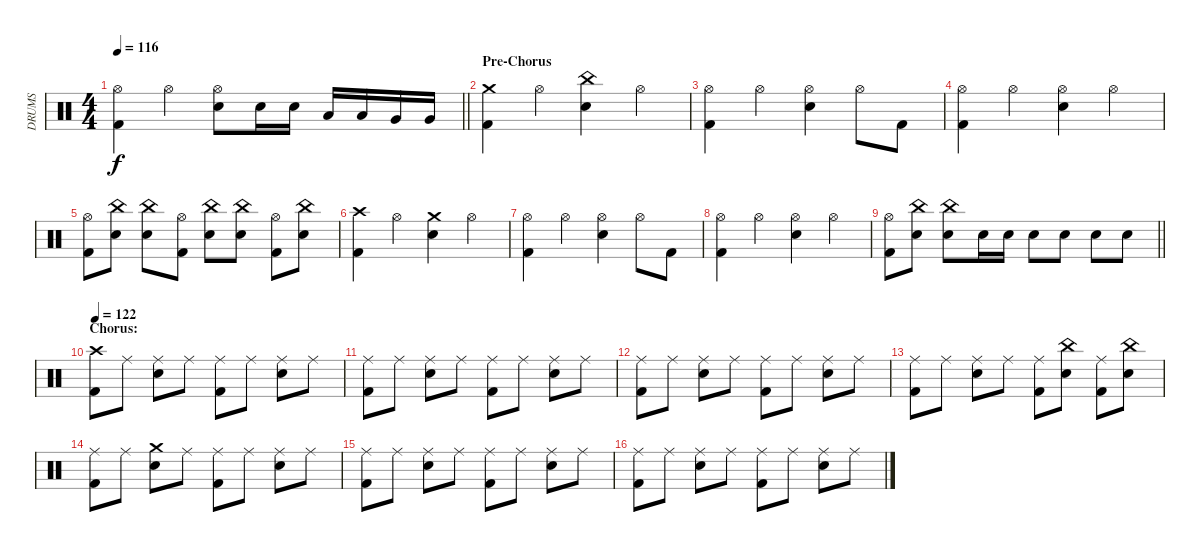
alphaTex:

\track ("DRUMS" "DRUMS") {instrument percussion}
\staff {score}
\articulation defaults
\ts (4 4)
\tempo 116
\clef neutral
\barLineRight lightlight
\ks c
("Hi-Hat (open)" "Kick (hit) 2").4{dy f} "Hi-Hat (open)".4 ("Hi-Hat (open)" "Snare (hit) 2").8 "Snare (hit) 2".16 "Snare (hit) 2".16 "Low Tom (hit)".16 "Low Tom (hit)".16 "Very Low Tom (hit)".16 "Very Low Tom (hit)".16 |
\section ("" "Pre-Chorus")
("Crash medium (hit)" "Kick (hit) 2").4 "Hi-Hat (open)".4 ("China (hit)" "Snare (hit) 2").4 "Hi-Hat (open)".4 |
("Hi-Hat (open)" "Kick (hit) 2").4 "Hi-Hat (open)".4 ("Hi-Hat (open)" "Snare (hit) 2").4 "Hi-Hat (open)".8 "Kick (hit) 2".8 |
("Hi-Hat (open)" "Kick (hit) 2").4 "Hi-Hat (open)".4 ("Hi-Hat (open)" "Snare (hit) 2").4 "Hi-Hat (open)".4 |
("Hi-Hat (open)" "Kick (hit) 2").8 ("China (hit)" "Snare (hit) 2").8 ("China (hit)" "Snare (hit) 2").8 ("Hi-Hat (open)" "Kick (hit) 2").8 ("China (hit)" "Snare (hit) 2").8 ("China (hit)" "Snare (hit) 2").8 ("Hi-Hat (open)" "Kick (hit) 2").8 ("China (hit)" "Snare (hit) 2").8 |
("Crash high (hit)" "Kick (hit) 2").4 "Hi-Hat (open)".4 ("Crash medium (hit)" "Snare (hit) 2").4 "Hi-Hat (open)".4 |
("Hi-Hat (open)" "Kick (hit) 2").4 "Hi-Hat (open)".4 ("Hi-Hat (open)" "Snare (hit) 2").4 "Hi-Hat (open)".8 "Kick (hit) 2".8 |
("Hi-Hat (open)" "Kick (hit) 2").4 "Hi-Hat (open)".4 ("Hi-Hat (open)" "Snare (hit) 2").4 "Hi-Hat (open)".4 |
\barLineRight lightlight
("Hi-Hat (open)" "Kick (hit) 2").8 ("China (hit)" "Snare (hit) 2").8 ("China (hit)" "Snare (hit) 2").8 "Snare (hit) 2".16 "Snare (hit) 2".16 "Snare (hit) 2".8 "Snare (hit) 2".8 "Snare (hit) 2".8 "Snare (hit) 2".8 |
\section ("" "Chorus:")
\tempo 122
("Crash high (hit)" "Kick (hit) 2").8 "Ride (middle)".8 ("Ride (middle)" "Snare (hit) 2").8 "Ride (middle)".8 ("Ride (middle)" "Kick (hit) 2").8 "Ride (middle)".8 ("Ride (middle)" "Snare (hit) 2").8 "Ride (middle)".8 |
("Ride (middle)" "Kick (hit) 2").8 "Ride (middle)".8 ("Ride (middle)" "Snare (hit) 2").8 "Ride (middle)".8 ("Ride (middle)" "Kick (hit) 2").8 "Ride (middle)".8 ("Ride (middle)" "Snare (hit) 2").8 "Ride (middle)".8 |
("Ride (middle)" "Kick (hit) 2").8 "Ride (middle)".8 ("Ride (middle)" "Snare (hit) 2").8 "Ride (middle)".8 ("Ride (middle)" "Kick (hit) 2").8 "Ride (middle)".8 ("Ride (middle)" "Snare (hit) 2").8 "Ride (middle)".8 |
("Ride (middle)" "Kick (hit) 2").8 "Ride (middle)".8 ("Ride (middle)" "Snare (hit) 2").8 "Ride (middle)".8 ("Ride (middle)" "Kick (hit) 2").8 ("China (hit)" "Snare (hit) 2").8 ("Ride (middle)" "Kick (hit) 2").8 ("China (hit)" "Snare (hit) 2").8 |
("Ride (middle)" "Kick (hit) 2").8 "Ride (middle)".8 ("Crash medium (hit)" "Snare (hit) 2").8 "Ride (middle)".8 ("Ride (middle)" "Kick (hit) 2").8 "Ride (middle)".8 ("Ride (middle)" "Snare (hit) 2").8 "Ride (middle)".8 |
("Ride (middle)" "Kick (hit) 2").8 "Ride (middle)".8 ("Ride (middle)" "Snare (hit) 2").8 "Ride (middle)".8 ("Ride (middle)" "Kick (hit) 2").8 "Ride (middle)".8 ("Ride (middle)" "Snare (hit) 2").8 "Ride (middle)".8 |
("Ride (middle)" "Kick (hit) 2").8 "Ride (middle)".8 ("Ride (middle)" "Snare (hit) 2").8 "Ride (middle)".8 ("Ride (middle)" "Kick (hit) 2").8 "Ride (middle)".8 ("Ride (middle)" "Snare (hit) 2").8 "Ride (middle)".8
